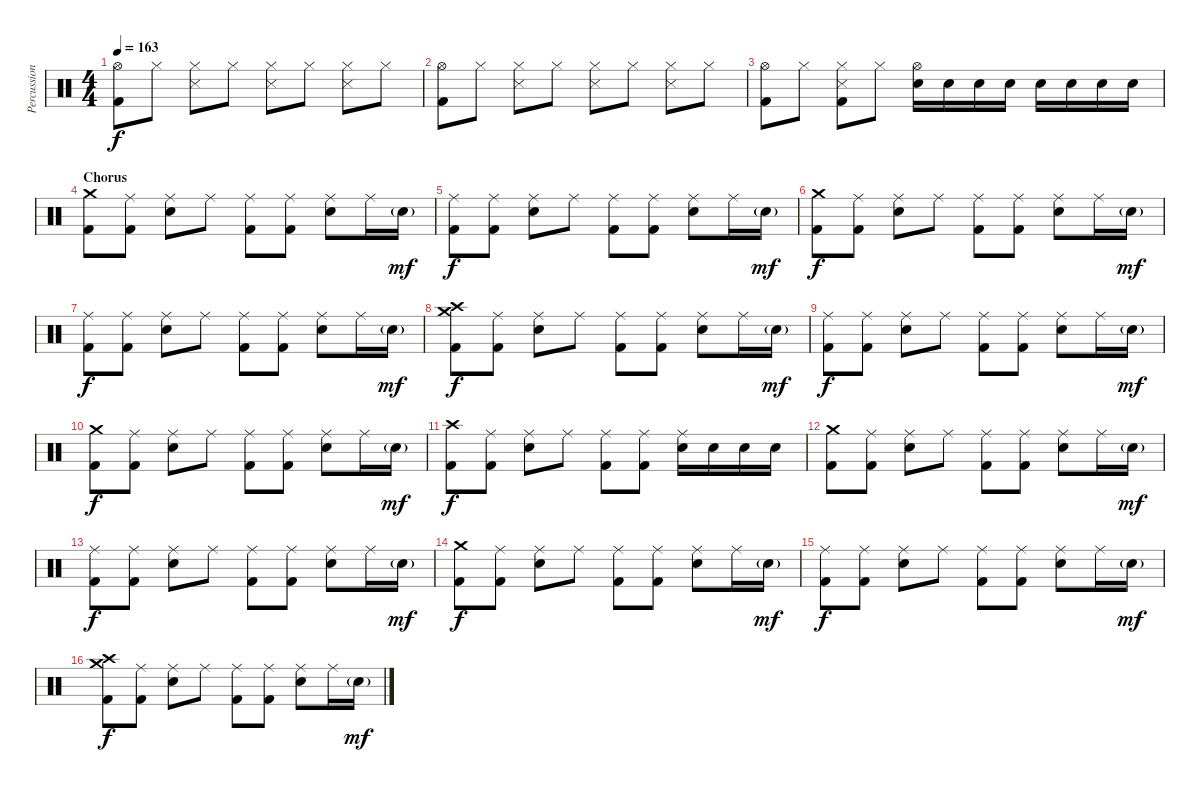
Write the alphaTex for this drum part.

\track ("Percussion" "Percussion") {instrument percussion}
\staff {score}
\articulation defaults
\ts (4 4)
\tempo 163
\clef neutral
\ks c
("Hi-Hat (open)" "Kick (hit) 2").8{dy f} "Hi-Hat (closed)".8 ("Hi-Hat (closed)" "Snare (side stick) 3").8 "Hi-Hat (closed)".8 ("Hi-Hat (closed)" "Snare (side stick) 3").8 "Hi-Hat (closed)".8 ("Hi-Hat (closed)" "Snare (side stick) 3").8 "Hi-Hat (closed)".8 |
("Hi-Hat (open)" "Kick (hit) 2").8 "Hi-Hat (closed)".8 ("Hi-Hat (closed)" "Snare (side stick) 3").8 "Hi-Hat (closed)".8 ("Hi-Hat (closed)" "Snare (side stick) 3").8 "Hi-Hat (closed)".8 ("Hi-Hat (closed)" "Snare (side stick) 3").8 "Hi-Hat (closed)".8 |
("Hi-Hat (open)" "Kick (hit) 2").8 "Hi-Hat (closed)".8 ("Hi-Hat (closed)" "Snare (side stick) 3" "Kick (hit) 2").8 "Hi-Hat (closed)".8 ("Hi-Hat (open)" "Electric Snare (hit)").16 "Electric Snare (hit)".16 "Electric Snare (hit)".16 "Electric Snare (hit)".16 "Electric Snare (hit)".16 "Electric Snare (hit)".16 "Electric Snare (hit)".16 "Electric Snare (hit)".16 |
\section ("" "Chorus")
("Crash medium (hit)" "Kick (hit) 2").8 ("Ride (middle)" "Kick (hit) 2").8 ("Ride (middle)" "Electric Snare (hit)").8 "Ride (middle)".8 ("Ride (middle)" "Kick (hit) 2").8 ("Ride (middle)" "Kick (hit) 2").8 ("Ride (middle)" "Electric Snare (hit)").8 "Ride (middle)".16 "Electric Snare (hit)"{g}.16{dy mf} |
("Ride (middle)" "Kick (hit) 2").8{dy f} ("Ride (middle)" "Kick (hit) 2").8 ("Ride (middle)" "Electric Snare (hit)").8 "Ride (middle)".8 ("Ride (middle)" "Kick (hit) 2").8 ("Ride (middle)" "Kick (hit) 2").8 ("Ride (middle)" "Electric Snare (hit)").8 "Ride (middle)".16 "Electric Snare (hit)"{g}.16{dy mf} |
("Crash medium (hit)" "Kick (hit) 2").8{dy f} ("Ride (middle)" "Kick (hit) 2").8 ("Ride (middle)" "Electric Snare (hit)").8 "Ride (middle)".8 ("Ride (middle)" "Kick (hit) 2").8 ("Ride (middle)" "Kick (hit) 2").8 ("Ride (middle)" "Electric Snare (hit)").8 "Ride (middle)".16 "Electric Snare (hit)"{g}.16{dy mf} |
("Ride (middle)" "Kick (hit) 2").8{dy f} ("Ride (middle)" "Kick (hit) 2").8 ("Ride (middle)" "Electric Snare (hit)").8 "Ride (middle)".8 ("Ride (middle)" "Kick (hit) 2").8 ("Ride (middle)" "Kick (hit) 2").8 ("Ride (middle)" "Electric Snare (hit)").8 "Ride (middle)".16 "Electric Snare (hit)"{g}.16{dy mf} |
("Crash medium (hit)" "Crash high (hit)" "Kick (hit) 2").8{dy f} ("Ride (middle)" "Kick (hit) 2").8 ("Ride (middle)" "Electric Snare (hit)").8 "Ride (middle)".8 ("Ride (middle)" "Kick (hit) 2").8 ("Ride (middle)" "Kick (hit) 2").8 ("Ride (middle)" "Electric Snare (hit)").8 "Ride (middle)".16 "Electric Snare (hit)"{g}.16{dy mf} |
("Ride (middle)" "Kick (hit) 2").8{dy f} ("Ride (middle)" "Kick (hit) 2").8 ("Ride (middle)" "Electric Snare (hit)").8 "Ride (middle)".8 ("Ride (middle)" "Kick (hit) 2").8 ("Ride (middle)" "Kick (hit) 2").8 ("Ride (middle)" "Electric Snare (hit)").8 "Ride (middle)".16 "Electric Snare (hit)"{g}.16{dy mf} |
("Crash medium (hit)" "Kick (hit) 2").8{dy f} ("Ride (middle)" "Kick (hit) 2").8 ("Ride (middle)" "Electric Snare (hit)").8 "Ride (middle)".8 ("Ride (middle)" "Kick (hit) 2").8 ("Ride (middle)" "Kick (hit) 2").8 ("Ride (middle)" "Electric Snare (hit)").8 "Ride (middle)".16 "Electric Snare (hit)"{g}.16{dy mf} |
("Crash high (hit)" "Kick (hit) 2").8{dy f} ("Ride (middle)" "Kick (hit) 2").8 ("Ride (middle)" "Electric Snare (hit)").8 "Ride (middle)".8 ("Ride (middle)" "Kick (hit) 2").8 ("Ride (middle)" "Kick (hit) 2").8 ("Ride (middle)" "Electric Snare (hit)").16 "Electric Snare (hit)".16 "Electric Snare (hit)".16 "Electric Snare (hit)".16 |
("Crash medium (hit)" "Kick (hit) 2").8 ("Ride (middle)" "Kick (hit) 2").8 ("Ride (middle)" "Electric Snare (hit)").8 "Ride (middle)".8 ("Ride (middle)" "Kick (hit) 2").8 ("Ride (middle)" "Kick (hit) 2").8 ("Ride (middle)" "Electric Snare (hit)").8 "Ride (middle)".16 "Electric Snare (hit)"{g}.16{dy mf} |
("Ride (middle)" "Kick (hit) 2").8{dy f} ("Ride (middle)" "Kick (hit) 2").8 ("Ride (middle)" "Electric Snare (hit)").8 "Ride (middle)".8 ("Ride (middle)" "Kick (hit) 2").8 ("Ride (middle)" "Kick (hit) 2").8 ("Ride (middle)" "Electric Snare (hit)").8 "Ride (middle)".16 "Electric Snare (hit)"{g}.16{dy mf} |
("Crash medium (hit)" "Kick (hit) 2").8{dy f} ("Ride (middle)" "Kick (hit) 2").8 ("Ride (middle)" "Electric Snare (hit)").8 "Ride (middle)".8 ("Ride (middle)" "Kick (hit) 2").8 ("Ride (middle)" "Kick (hit) 2").8 ("Ride (middle)" "Electric Snare (hit)").8 "Ride (middle)".16 "Electric Snare (hit)"{g}.16{dy mf} |
("Ride (middle)" "Kick (hit) 2").8{dy f} ("Ride (middle)" "Kick (hit) 2").8 ("Ride (middle)" "Electric Snare (hit)").8 "Ride (middle)".8 ("Ride (middle)" "Kick (hit) 2").8 ("Ride (middle)" "Kick (hit) 2").8 ("Ride (middle)" "Electric Snare (hit)").8 "Ride (middle)".16 "Electric Snare (hit)"{g}.16{dy mf} |
("Crash medium (hit)" "Crash high (hit)" "Kick (hit) 2").8{dy f} ("Ride (middle)" "Kick (hit) 2").8 ("Ride (middle)" "Electric Snare (hit)").8 "Ride (middle)".8 ("Ride (middle)" "Kick (hit) 2").8 ("Ride (middle)" "Kick (hit) 2").8 ("Ride (middle)" "Electric Snare (hit)").8 "Ride (middle)".16 "Electric Snare (hit)"{g}.16{dy mf}
